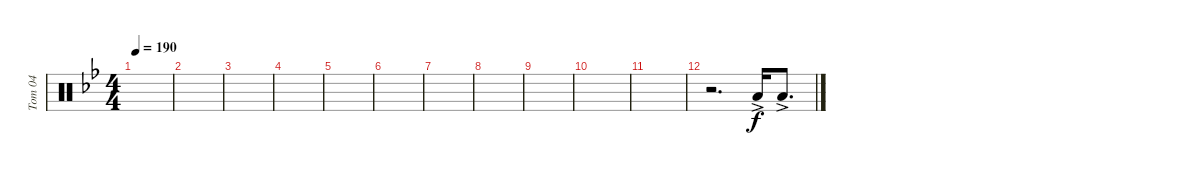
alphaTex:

\track ("Tom 04" "Tom 04") {instrument percussion}
\staff {score}
\articulation defaults
\ts (4 4)
\tempo 190
\clef neutral
\ks bb
|
|
|
|
|
|
|
|
|
|
|
r.2{d} "Low Tom (hit)"{ac}.16 "Low Tom (hit)"{ac}.8{d}
